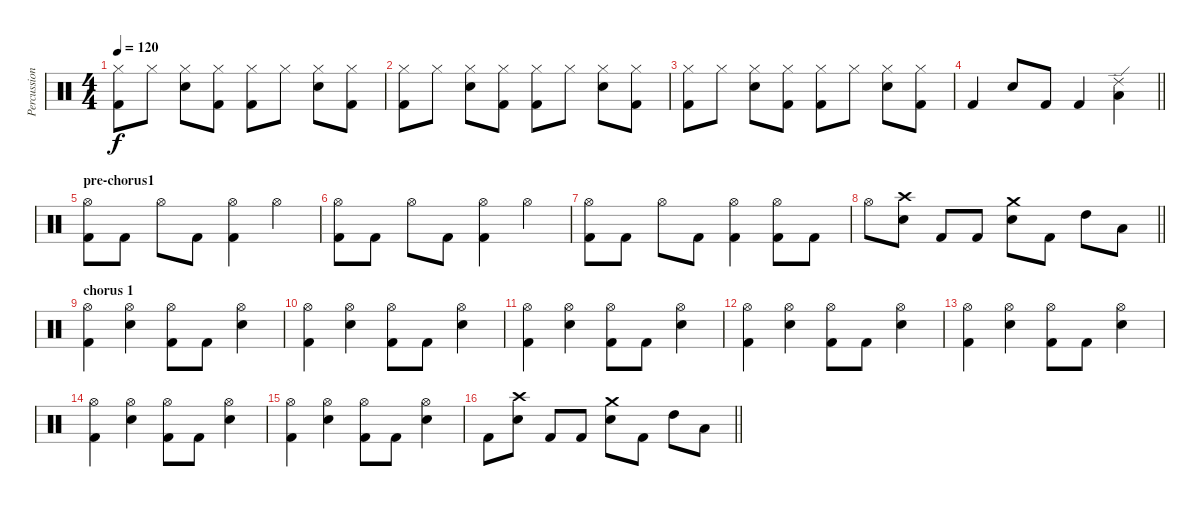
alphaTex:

\track ("Percussion" "Percussion") {instrument percussion}
\staff {score}
\articulation defaults
\ts (4 4)
\tempo 120
\clef neutral
\ks c
("Kick (hit) 2" "Hi-Hat (closed)").8{dy f} "Hi-Hat (closed)".8 ("Snare (hit) 2" "Hi-Hat (closed)").8 ("Kick (hit) 2" "Hi-Hat (closed)").8 ("Kick (hit) 2" "Hi-Hat (closed)").8 "Hi-Hat (closed)".8 ("Snare (hit) 2" "Hi-Hat (closed)").8 ("Kick (hit) 2" "Hi-Hat (closed)").8 |
("Kick (hit) 2" "Hi-Hat (closed)").8 "Hi-Hat (closed)".8 ("Snare (hit) 2" "Hi-Hat (closed)").8 ("Kick (hit) 2" "Hi-Hat (closed)").8 ("Kick (hit) 2" "Hi-Hat (closed)").8 "Hi-Hat (closed)".8 ("Snare (hit) 2" "Hi-Hat (closed)").8 ("Kick (hit) 2" "Hi-Hat (closed)").8 |
("Kick (hit) 2" "Hi-Hat (closed)").8 "Hi-Hat (closed)".8 ("Snare (hit) 2" "Hi-Hat (closed)").8 ("Kick (hit) 2" "Hi-Hat (closed)").8 ("Kick (hit) 2" "Hi-Hat (closed)").8 "Hi-Hat (closed)".8 ("Snare (hit) 2" "Hi-Hat (closed)").8 ("Kick (hit) 2" "Hi-Hat (closed)").8 |
\barLineRight lightlight "Kick (hit) 2".4 "Snare (hit) 2".8 "Kick (hit) 2".8 "Kick (hit) 2".4
("Low Floor Tom (hit)" "Ride (edge) 2").4 |
\section ("" "pre-chorus1")
("Kick (hit) 2" "Hi-Hat (open)").8 "Kick (hit) 2".8 "Hi-Hat (open)".8 "Kick (hit) 2".8 ("Kick (hit) 2" "Hi-Hat (open)").4 "Hi-Hat (open)".4 |
("Kick (hit) 2" "Hi-Hat (open)").8 "Kick (hit) 2".8 "Hi-Hat (open)".8 "Kick (hit) 2".8 ("Kick (hit) 2" "Hi-Hat (open)").4 "Hi-Hat (open)".4 |
("Kick (hit) 2" "Hi-Hat (open)").8 "Kick (hit) 2".8 "Hi-Hat (open)".8 "Kick (hit) 2".8 ("Kick (hit) 2" "Hi-Hat (open)").4 ("Kick (hit) 2" "Hi-Hat (open)").8 "Kick (hit) 2".8 |
\barLineRight lightlight "Hi-Hat (open)".8
("Snare (hit) 2" "Crash high (hit)").8 "Kick (hit) 2".8 "Kick (hit) 2".8 ("Snare (hit) 2" "Crash medium (hit)").8 "Kick (hit) 2".8 "High Tom (hit)".8 "Low Tom (hit)".8 |
\section ("" "chorus 1")
("Kick (hit) 2" "Hi-Hat (open)").4 ("Snare (hit) 2" "Hi-Hat (open)").4 ("Kick (hit) 2" "Hi-Hat (open)").8 "Kick (hit) 2".8 ("Snare (hit) 2" "Hi-Hat (open)").4 |
("Kick (hit) 2" "Hi-Hat (open)").4 ("Snare (hit) 2" "Hi-Hat (open)").4 ("Kick (hit) 2" "Hi-Hat (open)").8 "Kick (hit) 2".8 ("Snare (hit) 2" "Hi-Hat (open)").4 |
("Kick (hit) 2" "Hi-Hat (open)").4 ("Snare (hit) 2" "Hi-Hat (open)").4 ("Kick (hit) 2" "Hi-Hat (open)").8 "Kick (hit) 2".8 ("Snare (hit) 2" "Hi-Hat (open)").4 |
("Kick (hit) 2" "Hi-Hat (open)").4 ("Snare (hit) 2" "Hi-Hat (open)").4 ("Kick (hit) 2" "Hi-Hat (open)").8 "Kick (hit) 2".8 ("Snare (hit) 2" "Hi-Hat (open)").4 |
("Kick (hit) 2" "Hi-Hat (open)").4 ("Snare (hit) 2" "Hi-Hat (open)").4 ("Kick (hit) 2" "Hi-Hat (open)").8 "Kick (hit) 2".8 ("Snare (hit) 2" "Hi-Hat (open)").4 |
("Kick (hit) 2" "Hi-Hat (open)").4 ("Snare (hit) 2" "Hi-Hat (open)").4 ("Kick (hit) 2" "Hi-Hat (open)").8 "Kick (hit) 2".8 ("Snare (hit) 2" "Hi-Hat (open)").4 |
("Kick (hit) 2" "Hi-Hat (open)").4 ("Snare (hit) 2" "Hi-Hat (open)").4 ("Kick (hit) 2" "Hi-Hat (open)").8 "Kick (hit) 2".8 ("Snare (hit) 2" "Hi-Hat (open)").4 |
\barLineRight lightlight "Kick (hit) 2".8
("Snare (hit) 2" "Crash high (hit)").8 "Kick (hit) 2".8 "Kick (hit) 2".8 ("Snare (hit) 2" "Crash medium (hit)").8 "Kick (hit) 2".8 "High Tom (hit)".8 "Low Tom (hit)".8
